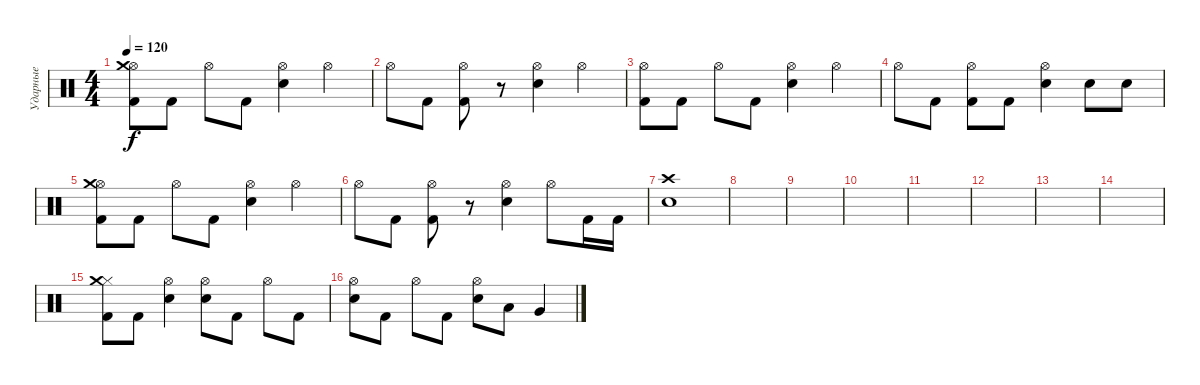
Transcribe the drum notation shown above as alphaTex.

\track ("Ударные" "Ударные") {instrument percussion}
\staff {score}
\articulation defaults
\ts (4 4)
\tempo 120
\clef neutral
\ks c
("Kick (hit) 2" "Hi-Hat (open)" "Crash medium (hit)").8{dy f} "Kick (hit) 2".8 "Hi-Hat (open)".8 "Kick (hit) 2".8 ("Electric Snare (hit)" "Hi-Hat (open)").4 "Hi-Hat (open)".4 |
"Hi-Hat (open)".8 "Kick (hit) 2".8 ("Kick (hit) 2" "Hi-Hat (open)").8 r.8 ("Electric Snare (hit)" "Hi-Hat (open)").4 "Hi-Hat (open)".4 |
("Kick (hit) 2" "Hi-Hat (open)").8 "Kick (hit) 2".8 "Hi-Hat (open)".8 "Kick (hit) 2".8 ("Electric Snare (hit)" "Hi-Hat (open)").4 "Hi-Hat (open)".4 |
"Hi-Hat (open)".8 "Kick (hit) 2".8 ("Kick (hit) 2" "Hi-Hat (open)").8 "Kick (hit) 2".8 ("Electric Snare (hit)" "Hi-Hat (open)").4 "Electric Snare (hit)".8 "Electric Snare (hit)".8 |
("Kick (hit) 2" "Hi-Hat (open)" "Crash medium (hit)").8 "Kick (hit) 2".8 "Hi-Hat (open)".8 "Kick (hit) 2".8 ("Electric Snare (hit)" "Hi-Hat (open)").4 "Hi-Hat (open)".4 |
"Hi-Hat (open)".8 "Kick (hit) 2".8 ("Kick (hit) 2" "Hi-Hat (open)").8 r.8 ("Electric Snare (hit)" "Hi-Hat (open)").4 "Hi-Hat (open)".8 "Kick (hit) 2".16 "Kick (hit) 2".16 |
("Electric Snare (hit)" "Crash high (hit)").1 |
|
|
|
|
|
|
|
("Kick (hit) 2" "Hi-Hat (closed)" "Crash medium (hit)").8 "Kick (hit) 2".8 ("Electric Snare (hit)" "Hi-Hat (open)").4 ("Electric Snare (hit)" "Hi-Hat (open)").8 "Kick (hit) 2".8 "Hi-Hat (open)".8 "Kick (hit) 2".8 |
("Electric Snare (hit)" "Hi-Hat (open)").8 "Kick (hit) 2".8 "Hi-Hat (open)".8 "Kick (hit) 2".8 ("Electric Snare (hit)" "Hi-Hat (open)").8 "Low Tom (hit)".8 "Very Low Tom (hit)".4
